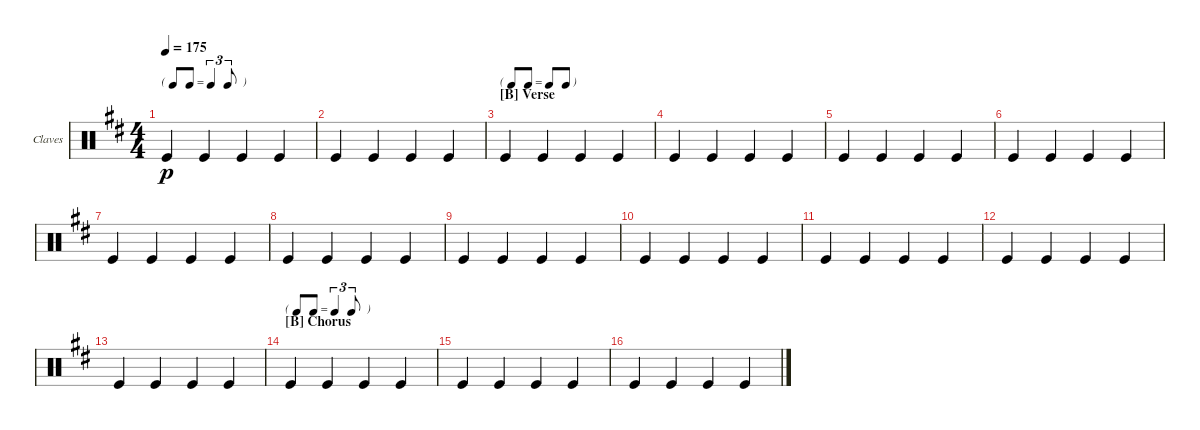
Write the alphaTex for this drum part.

\defaultSystemsLayout 4
\bracketExtendMode groupsimilarinstruments
\firstSystemTrackNameOrientation horizontal
\otherSystemsTrackNameOrientation horizontal
\track ("Claves" "Claves") {instrument percussion}
\staff {score}
\articulation defaults
\ts (4 4)
\tf triplet8th
\tempo 175
\clef neutral
\ks d "Kick (hit)".4{dy p} "Kick (hit)".4 "Kick (hit)".4 "Kick (hit)".4
|
"Kick (hit)".4 "Kick (hit)".4 "Kick (hit)".4 "Kick (hit)".4 |
\tf none
\section ("B" "Verse")
"Kick (hit)".4 "Kick (hit)".4 "Kick (hit)".4 "Kick (hit)".4 |
"Kick (hit)".4 "Kick (hit)".4 "Kick (hit)".4 "Kick (hit)".4 |
"Kick (hit)".4 "Kick (hit)".4 "Kick (hit)".4 "Kick (hit)".4 |
"Kick (hit)".4 "Kick (hit)".4 "Kick (hit)".4 "Kick (hit)".4 |
"Kick (hit)".4 "Kick (hit)".4 "Kick (hit)".4 "Kick (hit)".4 |
"Kick (hit)".4 "Kick (hit)".4 "Kick (hit)".4 "Kick (hit)".4 |
"Kick (hit)".4 "Kick (hit)".4 "Kick (hit)".4 "Kick (hit)".4 |
"Kick (hit)".4 "Kick (hit)".4 "Kick (hit)".4 "Kick (hit)".4 |
"Kick (hit)".4 "Kick (hit)".4 "Kick (hit)".4 "Kick (hit)".4 |
"Kick (hit)".4 "Kick (hit)".4 "Kick (hit)".4 "Kick (hit)".4 |
"Kick (hit)".4 "Kick (hit)".4 "Kick (hit)".4 "Kick (hit)".4 |
\tf triplet8th
\section ("B" "Chorus")
"Kick (hit)".4 "Kick (hit)".4 "Kick (hit)".4 "Kick (hit)".4 |
"Kick (hit)".4 "Kick (hit)".4 "Kick (hit)".4 "Kick (hit)".4 |
"Kick (hit)".4 "Kick (hit)".4 "Kick (hit)".4 "Kick (hit)".4
